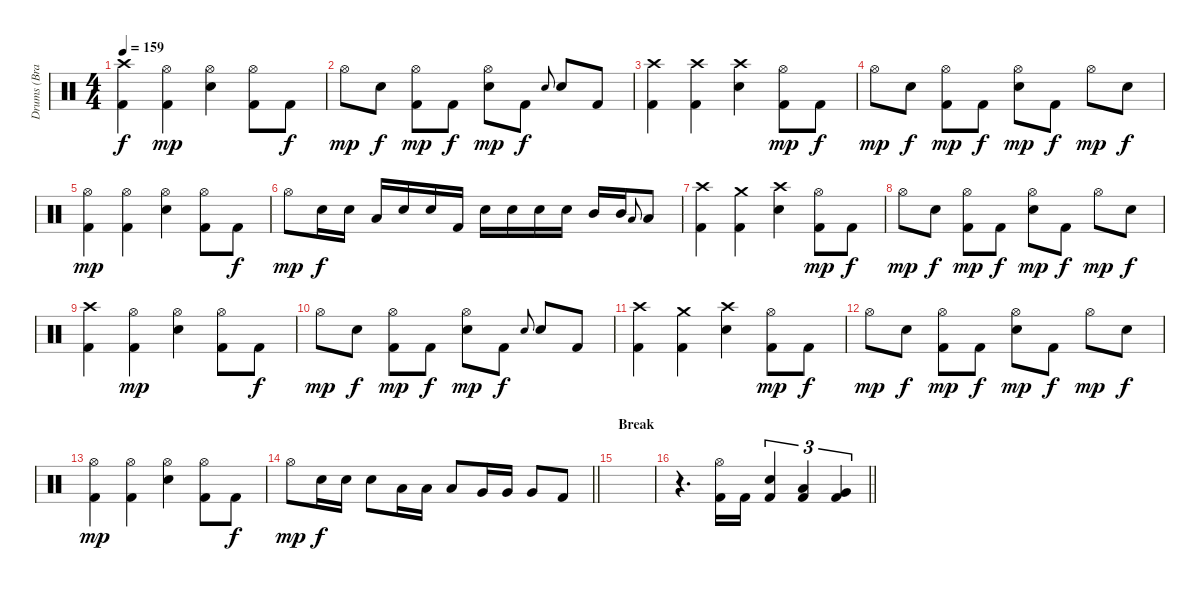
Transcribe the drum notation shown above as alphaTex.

\track ("Drums (Brandon Saller)" "Drums (Bra") {instrument percussion}
\staff {score}
\articulation defaults
\ts (4 4)
\tempo 159
\clef neutral
\ks c
("Crash high (hit)" "Kick (hit) 2").4{dy f} ("Hi-Hat (open)" "Kick (hit) 2").4{dy mp} ("Hi-Hat (open)" "Electric Snare (hit)").4 ("Hi-Hat (open)" "Kick (hit) 2").8 "Kick (hit) 2".8{dy f} |
"Hi-Hat (open)".8{dy mp} "Electric Snare (hit)".8{dy f} ("Hi-Hat (open)" "Kick (hit) 2").8{dy mp} "Kick (hit) 2".8{dy f} ("Hi-Hat (open)" "Electric Snare (hit)").8{dy mp} "Kick (hit) 2".8{dy f} "Electric Snare (hit)".8{gr onbeat} "Electric Snare (hit)".8 "Kick (hit) 2".8 |
("Crash high (hit)" "Kick (hit) 2").4 ("Crash high (hit)" "Kick (hit) 2").4 ("Crash high (hit)" "Electric Snare (hit)").4 ("Hi-Hat (open)" "Kick (hit) 2").8{dy mp} "Kick (hit) 2".8{dy f} |
"Hi-Hat (open)".8{dy mp} "Electric Snare (hit)".8{dy f} ("Hi-Hat (open)" "Kick (hit) 2").8{dy mp} "Kick (hit) 2".8{dy f} ("Hi-Hat (open)" "Electric Snare (hit)").8{dy mp} "Kick (hit) 2".8{dy f} "Hi-Hat (open)".8{dy mp} "Electric Snare (hit)".8{dy f} |
("Hi-Hat (open)" "Kick (hit) 2").4{dy mp} ("Hi-Hat (open)" "Kick (hit) 2").4 ("Hi-Hat (open)" "Electric Snare (hit)").4 ("Hi-Hat (open)" "Kick (hit) 2").8 "Kick (hit) 2".8{dy f} |
"Hi-Hat (open)".8{dy mp} "Electric Snare (hit)".16{dy f} "Electric Snare (hit)".16 "Low Tom (hit)".16 "Electric Snare (hit)".16 "Electric Snare (hit)".16 "Kick (hit) 2".16 "Electric Snare (hit)".16 "Electric Snare (hit)".16 "Electric Snare (hit)".16 "Electric Snare (hit)".16 "Mid Tom (hit)".16 "Mid Tom (hit)".16 "Low Tom (hit)".8{gr onbeat} "Low Tom (hit)".8 |
("Crash high (hit)" "Kick (hit) 2").4 ("Crash medium (hit)" "Kick (hit) 2").4 ("Crash high (hit)" "Electric Snare (hit)").4 ("Hi-Hat (open)" "Kick (hit) 2").8{dy mp} "Kick (hit) 2".8{dy f} |
"Hi-Hat (open)".8{dy mp} "Electric Snare (hit)".8{dy f} ("Hi-Hat (open)" "Kick (hit) 2").8{dy mp} "Kick (hit) 2".8{dy f} ("Hi-Hat (open)" "Electric Snare (hit)").8{dy mp} "Kick (hit) 2".8{dy f} "Hi-Hat (open)".8{dy mp} "Electric Snare (hit)".8{dy f} |
("Crash high (hit)" "Kick (hit) 2").4 ("Hi-Hat (open)" "Kick (hit) 2").4{dy mp} ("Hi-Hat (open)" "Electric Snare (hit)").4 ("Hi-Hat (open)" "Kick (hit) 2").8 "Kick (hit) 2".8{dy f} |
"Hi-Hat (open)".8{dy mp} "Electric Snare (hit)".8{dy f} ("Hi-Hat (open)" "Kick (hit) 2").8{dy mp} "Kick (hit) 2".8{dy f} ("Hi-Hat (open)" "Electric Snare (hit)").8{dy mp} "Kick (hit) 2".8{dy f} "Electric Snare (hit)".8{gr onbeat} "Electric Snare (hit)".8 "Kick (hit) 2".8 |
("Crash high (hit)" "Kick (hit) 2").4 ("Crash medium (hit)" "Kick (hit) 2").4 ("Crash high (hit)" "Electric Snare (hit)").4 ("Hi-Hat (open)" "Kick (hit) 2").8{dy mp} "Kick (hit) 2".8{dy f} |
"Hi-Hat (open)".8{dy mp} "Electric Snare (hit)".8{dy f} ("Hi-Hat (open)" "Kick (hit) 2").8{dy mp} "Kick (hit) 2".8{dy f} ("Hi-Hat (open)" "Electric Snare (hit)").8{dy mp} "Kick (hit) 2".8{dy f} "Hi-Hat (open)".8{dy mp} "Electric Snare (hit)".8{dy f} |
("Hi-Hat (open)" "Kick (hit) 2").4{dy mp} ("Hi-Hat (open)" "Kick (hit) 2").4 ("Hi-Hat (open)" "Electric Snare (hit)").4 ("Hi-Hat (open)" "Kick (hit) 2").8 "Kick (hit) 2".8{dy f} |
\barLineRight lightlight "Hi-Hat (open)".8{dy mp} "Electric Snare (hit)".16{dy f} "Electric Snare (hit)".16 "Electric Snare (hit)".8 "Low Tom (hit)".16 "Low Tom (hit)".16 "Low Tom (hit)".8 "Very Low Tom (hit)".16 "Very Low Tom (hit)".16 "Very Low Tom (hit)".8 "Kick (hit) 2".8
|
\section ("" "Break")
|
\barLineRight lightlight
r.4{d} ("Hi-Hat (open)" "Kick (hit) 2").16 "Kick (hit) 2".16 ("Electric Snare (hit)" "Kick (hit) 2").4{tu (3 2)} ("Low Tom (hit)" "Kick (hit) 2").4{tu (3 2)} ("Very Low Tom (hit)" "Kick (hit) 2").4{tu (3 2)}
